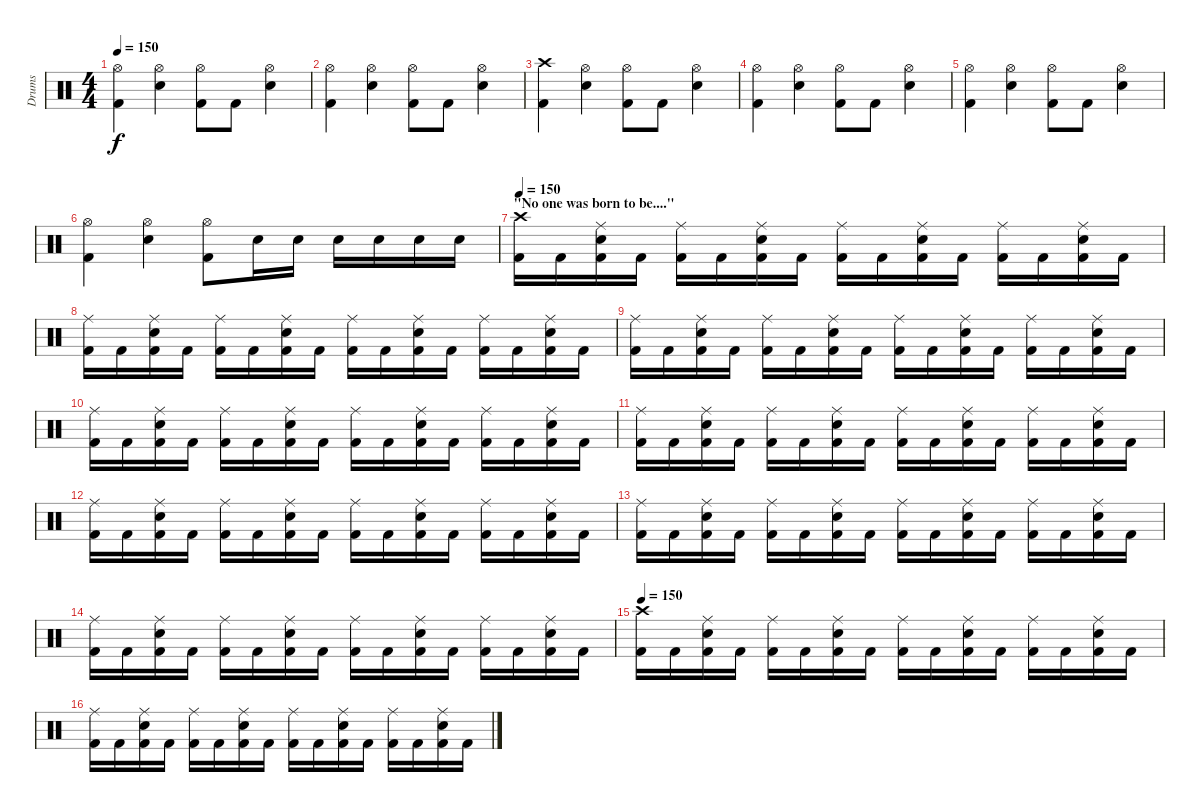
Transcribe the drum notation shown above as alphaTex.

\track ("Drums" "Drums") {instrument percussion}
\staff {score}
\articulation defaults
\ts (4 4)
\tempo 150
\clef neutral
\ks c
("Hi-Hat (open)" "Kick (hit) 2").4{dy f} ("Hi-Hat (open)" "Electric Snare (hit)").4 ("Hi-Hat (open)" "Kick (hit) 2").8 "Kick (hit) 2".8 ("Hi-Hat (open)" "Electric Snare (hit)").4 |
("Hi-Hat (open)" "Kick (hit) 2").4 ("Hi-Hat (open)" "Electric Snare (hit)").4 ("Hi-Hat (open)" "Kick (hit) 2").8 "Kick (hit) 2".8 ("Hi-Hat (open)" "Electric Snare (hit)").4 |
("Crash high (hit)" "Kick (hit) 2").4 ("Hi-Hat (open)" "Electric Snare (hit)").4 ("Hi-Hat (open)" "Kick (hit) 2").8 "Kick (hit) 2".8 ("Hi-Hat (open)" "Electric Snare (hit)").4 |
("Hi-Hat (open)" "Kick (hit) 2").4 ("Hi-Hat (open)" "Electric Snare (hit)").4 ("Hi-Hat (open)" "Kick (hit) 2").8 "Kick (hit) 2".8 ("Hi-Hat (open)" "Electric Snare (hit)").4 |
("Hi-Hat (open)" "Kick (hit) 2").4 ("Hi-Hat (open)" "Electric Snare (hit)").4 ("Hi-Hat (open)" "Kick (hit) 2").8 "Kick (hit) 2".8 ("Hi-Hat (open)" "Electric Snare (hit)").4 |
("Hi-Hat (open)" "Kick (hit) 2").4 ("Hi-Hat (open)" "Electric Snare (hit)").4 ("Hi-Hat (open)" "Kick (hit) 2").8 "Electric Snare (hit)".16 "Electric Snare (hit)".16 "Electric Snare (hit)".16 "Electric Snare (hit)".16 "Electric Snare (hit)".16 "Electric Snare (hit)".16 |
\section ("" "\"No one was born to be....\"")
\tempo 150
("Crash high (hit)" "Kick (hit) 2").16 "Kick (hit) 2".16 ("Ride (middle)" "Electric Snare (hit)" "Kick (hit) 2").16 "Kick (hit) 2".16 ("Ride (middle)" "Kick (hit) 2").16 "Kick (hit) 2".16 ("Ride (middle)" "Electric Snare (hit)" "Kick (hit) 2").16 "Kick (hit) 2".16 ("Ride (middle)" "Kick (hit) 2").16 "Kick (hit) 2".16 ("Ride (middle)" "Electric Snare (hit)" "Kick (hit) 2").16 "Kick (hit) 2".16 ("Ride (middle)" "Kick (hit) 2").16 "Kick (hit) 2".16 ("Ride (middle)" "Electric Snare (hit)" "Kick (hit) 2").16 "Kick (hit) 2".16 |
("Ride (middle)" "Kick (hit) 2").16 "Kick (hit) 2".16 ("Ride (middle)" "Electric Snare (hit)" "Kick (hit) 2").16 "Kick (hit) 2".16 ("Ride (middle)" "Kick (hit) 2").16 "Kick (hit) 2".16 ("Ride (middle)" "Electric Snare (hit)" "Kick (hit) 2").16 "Kick (hit) 2".16 ("Ride (middle)" "Kick (hit) 2").16 "Kick (hit) 2".16 ("Ride (middle)" "Electric Snare (hit)" "Kick (hit) 2").16 "Kick (hit) 2".16 ("Ride (middle)" "Kick (hit) 2").16 "Kick (hit) 2".16 ("Ride (middle)" "Electric Snare (hit)" "Kick (hit) 2").16 "Kick (hit) 2".16 |
("Ride (middle)" "Kick (hit) 2").16 "Kick (hit) 2".16 ("Ride (middle)" "Electric Snare (hit)" "Kick (hit) 2").16 "Kick (hit) 2".16 ("Ride (middle)" "Kick (hit) 2").16 "Kick (hit) 2".16 ("Ride (middle)" "Electric Snare (hit)" "Kick (hit) 2").16 "Kick (hit) 2".16 ("Ride (middle)" "Kick (hit) 2").16 "Kick (hit) 2".16 ("Ride (middle)" "Electric Snare (hit)" "Kick (hit) 2").16 "Kick (hit) 2".16 ("Ride (middle)" "Kick (hit) 2").16 "Kick (hit) 2".16 ("Ride (middle)" "Electric Snare (hit)" "Kick (hit) 2").16 "Kick (hit) 2".16 |
("Ride (middle)" "Kick (hit) 2").16 "Kick (hit) 2".16 ("Ride (middle)" "Electric Snare (hit)" "Kick (hit) 2").16 "Kick (hit) 2".16 ("Ride (middle)" "Kick (hit) 2").16 "Kick (hit) 2".16 ("Ride (middle)" "Electric Snare (hit)" "Kick (hit) 2").16 "Kick (hit) 2".16 ("Ride (middle)" "Kick (hit) 2").16 "Kick (hit) 2".16 ("Ride (middle)" "Electric Snare (hit)" "Kick (hit) 2").16 "Kick (hit) 2".16 ("Ride (middle)" "Kick (hit) 2").16 "Kick (hit) 2".16 ("Ride (middle)" "Electric Snare (hit)" "Kick (hit) 2").16 "Kick (hit) 2".16 |
("Ride (middle)" "Kick (hit) 2").16 "Kick (hit) 2".16 ("Ride (middle)" "Electric Snare (hit)" "Kick (hit) 2").16 "Kick (hit) 2".16 ("Ride (middle)" "Kick (hit) 2").16 "Kick (hit) 2".16 ("Ride (middle)" "Electric Snare (hit)" "Kick (hit) 2").16 "Kick (hit) 2".16 ("Ride (middle)" "Kick (hit) 2").16 "Kick (hit) 2".16 ("Ride (middle)" "Electric Snare (hit)" "Kick (hit) 2").16 "Kick (hit) 2".16 ("Ride (middle)" "Kick (hit) 2").16 "Kick (hit) 2".16 ("Ride (middle)" "Electric Snare (hit)" "Kick (hit) 2").16 "Kick (hit) 2".16 |
("Ride (middle)" "Kick (hit) 2").16 "Kick (hit) 2".16 ("Ride (middle)" "Electric Snare (hit)" "Kick (hit) 2").16 "Kick (hit) 2".16 ("Ride (middle)" "Kick (hit) 2").16 "Kick (hit) 2".16 ("Ride (middle)" "Electric Snare (hit)" "Kick (hit) 2").16 "Kick (hit) 2".16 ("Ride (middle)" "Kick (hit) 2").16 "Kick (hit) 2".16 ("Ride (middle)" "Electric Snare (hit)" "Kick (hit) 2").16 "Kick (hit) 2".16 ("Ride (middle)" "Kick (hit) 2").16 "Kick (hit) 2".16 ("Ride (middle)" "Electric Snare (hit)" "Kick (hit) 2").16 "Kick (hit) 2".16 |
("Ride (middle)" "Kick (hit) 2").16 "Kick (hit) 2".16 ("Ride (middle)" "Electric Snare (hit)" "Kick (hit) 2").16 "Kick (hit) 2".16 ("Ride (middle)" "Kick (hit) 2").16 "Kick (hit) 2".16 ("Ride (middle)" "Electric Snare (hit)" "Kick (hit) 2").16 "Kick (hit) 2".16 ("Ride (middle)" "Kick (hit) 2").16 "Kick (hit) 2".16 ("Ride (middle)" "Electric Snare (hit)" "Kick (hit) 2").16 "Kick (hit) 2".16 ("Ride (middle)" "Kick (hit) 2").16 "Kick (hit) 2".16 ("Ride (middle)" "Electric Snare (hit)" "Kick (hit) 2").16 "Kick (hit) 2".16 |
("Ride (middle)" "Kick (hit) 2").16 "Kick (hit) 2".16 ("Ride (middle)" "Electric Snare (hit)" "Kick (hit) 2").16 "Kick (hit) 2".16 ("Ride (middle)" "Kick (hit) 2").16 "Kick (hit) 2".16 ("Ride (middle)" "Electric Snare (hit)" "Kick (hit) 2").16 "Kick (hit) 2".16 ("Ride (middle)" "Kick (hit) 2").16 "Kick (hit) 2".16 ("Ride (middle)" "Electric Snare (hit)" "Kick (hit) 2").16 "Kick (hit) 2".16 ("Ride (middle)" "Kick (hit) 2").16 "Kick (hit) 2".16 ("Ride (middle)" "Electric Snare (hit)" "Kick (hit) 2").16 "Kick (hit) 2".16 |
\tempo 150
("Crash high (hit)" "Kick (hit) 2").16 "Kick (hit) 2".16 ("Ride (middle)" "Electric Snare (hit)" "Kick (hit) 2").16 "Kick (hit) 2".16 ("Ride (middle)" "Kick (hit) 2").16 "Kick (hit) 2".16 ("Ride (middle)" "Electric Snare (hit)" "Kick (hit) 2").16 "Kick (hit) 2".16 ("Ride (middle)" "Kick (hit) 2").16 "Kick (hit) 2".16 ("Ride (middle)" "Electric Snare (hit)" "Kick (hit) 2").16 "Kick (hit) 2".16 ("Ride (middle)" "Kick (hit) 2").16 "Kick (hit) 2".16 ("Ride (middle)" "Electric Snare (hit)" "Kick (hit) 2").16 "Kick (hit) 2".16 |
("Ride (middle)" "Kick (hit) 2").16 "Kick (hit) 2".16 ("Ride (middle)" "Electric Snare (hit)" "Kick (hit) 2").16 "Kick (hit) 2".16 ("Ride (middle)" "Kick (hit) 2").16 "Kick (hit) 2".16 ("Ride (middle)" "Electric Snare (hit)" "Kick (hit) 2").16 "Kick (hit) 2".16 ("Ride (middle)" "Kick (hit) 2").16 "Kick (hit) 2".16 ("Ride (middle)" "Electric Snare (hit)" "Kick (hit) 2").16 "Kick (hit) 2".16 ("Ride (middle)" "Kick (hit) 2").16 "Kick (hit) 2".16 ("Ride (middle)" "Electric Snare (hit)" "Kick (hit) 2").16 "Kick (hit) 2".16
